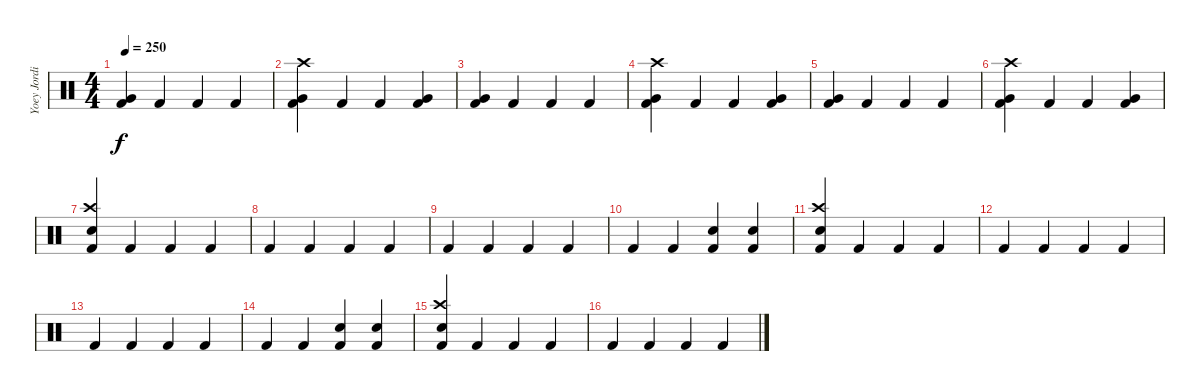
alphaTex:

\track ("Yoey Jordison" "Yoey Jordi") {instrument percussion}
\staff {score}
\articulation defaults
\ts (4 4)
\tempo 250
\clef neutral
\ks c
("Kick (hit) 2" "Very Low Tom (hit)").4{dy f} "Kick (hit) 2".4 "Kick (hit) 2".4 "Kick (hit) 2".4 |
("Crash high (hit)" "Kick (hit) 2" "Very Low Tom (hit)").4 "Kick (hit) 2".4 "Kick (hit) 2".4 ("Kick (hit) 2" "Very Low Tom (hit)").4 |
("Kick (hit) 2" "Very Low Tom (hit)").4 "Kick (hit) 2".4 "Kick (hit) 2".4 "Kick (hit) 2".4 |
("Crash high (hit)" "Kick (hit) 2" "Very Low Tom (hit)").4 "Kick (hit) 2".4 "Kick (hit) 2".4 ("Kick (hit) 2" "Very Low Tom (hit)").4 |
("Kick (hit) 2" "Very Low Tom (hit)").4 "Kick (hit) 2".4 "Kick (hit) 2".4 "Kick (hit) 2".4 |
("Crash high (hit)" "Kick (hit) 2" "Very Low Tom (hit)").4 "Kick (hit) 2".4 "Kick (hit) 2".4 ("Kick (hit) 2" "Very Low Tom (hit)").4 |
("Crash high (hit)" "Kick (hit) 2" "Snare (hit) 2").4 "Kick (hit) 2".4 "Kick (hit) 2".4 "Kick (hit) 2".4 |
"Kick (hit) 2".4 "Kick (hit) 2".4 "Kick (hit) 2".4 "Kick (hit) 2".4 |
"Kick (hit) 2".4 "Kick (hit) 2".4 "Kick (hit) 2".4 "Kick (hit) 2".4 |
"Kick (hit) 2".4 "Kick (hit) 2".4 ("Kick (hit) 2" "Electric Snare (hit)").4 ("Kick (hit) 2" "Electric Snare (hit)").4 |
("Crash high (hit)" "Kick (hit) 2" "Snare (hit) 2").4 "Kick (hit) 2".4 "Kick (hit) 2".4 "Kick (hit) 2".4 |
"Kick (hit) 2".4 "Kick (hit) 2".4 "Kick (hit) 2".4 "Kick (hit) 2".4 |
"Kick (hit) 2".4 "Kick (hit) 2".4 "Kick (hit) 2".4 "Kick (hit) 2".4 |
"Kick (hit) 2".4 "Kick (hit) 2".4 ("Kick (hit) 2" "Electric Snare (hit)").4 ("Kick (hit) 2" "Electric Snare (hit)").4 |
("Crash high (hit)" "Kick (hit) 2" "Snare (hit) 2").4 "Kick (hit) 2".4 "Kick (hit) 2".4 "Kick (hit) 2".4 |
"Kick (hit) 2".4 "Kick (hit) 2".4 "Kick (hit) 2".4 "Kick (hit) 2".4
